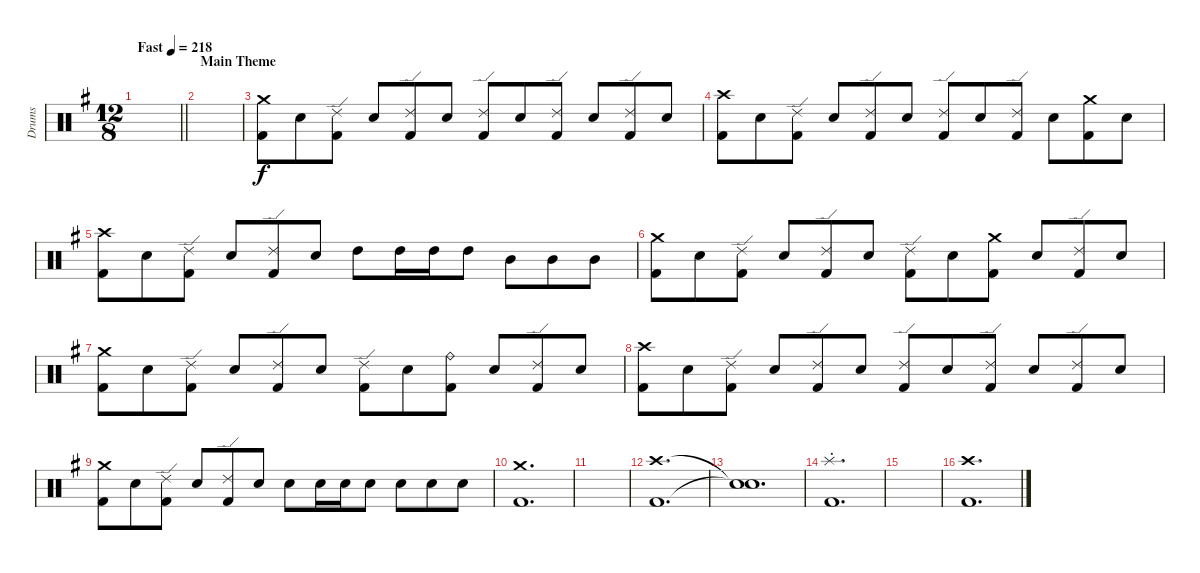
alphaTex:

\track ("Drums" "Drums") {solo instrument percussion}
\staff {score}
\articulation defaults
\ts (12 8)
\tempo (218 "Fast")
\clef neutral
\barLineRight lightlight
\ks eminor
|
\section ("" "Main Theme")
|
("Crash medium (hit)" "Kick (hit) 2").8 "Electric Snare (hit)".8 ("Ride (edge) 2" "Kick (hit) 2").8 "Electric Snare (hit)".8 ("Ride (edge) 2" "Kick (hit) 2").8 "Electric Snare (hit)".8 ("Ride (edge) 2" "Kick (hit) 2").8 "Electric Snare (hit)".8 ("Ride (edge) 2" "Kick (hit) 2").8 "Electric Snare (hit)".8 ("Ride (edge) 2" "Kick (hit) 2").8 "Electric Snare (hit)".8 |
("Crash high (hit)" "Kick (hit) 2").8 "Electric Snare (hit)".8 ("Ride (edge) 2" "Kick (hit) 2").8 "Electric Snare (hit)".8 ("Ride (edge) 2" "Kick (hit) 2").8 "Electric Snare (hit)".8 ("Ride (edge) 2" "Kick (hit) 2").8 "Electric Snare (hit)".8 ("Ride (edge) 2" "Kick (hit) 2").8 "Electric Snare (hit)".8 ("Crash medium (hit)" "Kick (hit) 2").8 "Electric Snare (hit)".8 |
("Crash high (hit)" "Kick (hit) 2").8 "Electric Snare (hit)".8 ("Ride (edge) 2" "Kick (hit) 2").8 "Electric Snare (hit)".8 ("Ride (edge) 2" "Kick (hit) 2").8 "Electric Snare (hit)".8 "High Tom (hit)".8 "High Tom (hit)".16 "High Tom (hit)".16 "High Tom (hit)".8 "Mid Tom (hit)".8 "Mid Tom (hit)".8 "Mid Tom (hit)".8 |
("Crash medium (hit)" "Kick (hit) 2").8 "Electric Snare (hit)".8 ("Ride (edge) 2" "Kick (hit) 2").8 "Electric Snare (hit)".8 ("Ride (edge) 2" "Kick (hit) 2").8 "Electric Snare (hit)".8 ("Ride (edge) 2" "Kick (hit) 2").8 "Electric Snare (hit)".8 ("Crash medium (hit)" "Kick (hit) 2").8 "Electric Snare (hit)".8 ("Ride (edge) 2" "Kick (hit) 2").8 "Electric Snare (hit)".8 |
("Crash medium (hit)" "Kick (hit) 2").8 "Electric Snare (hit)".8 ("Ride (edge) 2" "Kick (hit) 2").8 "Electric Snare (hit)".8 ("Ride (edge) 2" "Kick (hit) 2").8 "Electric Snare (hit)".8 ("Ride (edge) 2" "Kick (hit) 2").8 "Electric Snare (hit)".8 ("Ride (bell)" "Kick (hit) 2").8 "Electric Snare (hit)".8 ("Ride (edge) 2" "Kick (hit) 2").8 "Electric Snare (hit)".8 |
("Crash high (hit)" "Kick (hit) 2").8 "Electric Snare (hit)".8 ("Ride (edge) 2" "Kick (hit) 2").8 "Electric Snare (hit)".8 ("Ride (edge) 2" "Kick (hit) 2").8 "Electric Snare (hit)".8 ("Ride (edge) 2" "Kick (hit) 2").8 "Electric Snare (hit)".8 ("Ride (edge) 2" "Kick (hit) 2").8 "Electric Snare (hit)".8 ("Ride (edge) 2" "Kick (hit) 2").8 "Electric Snare (hit)".8 |
("Crash medium (hit)" "Kick (hit) 2").8 "Electric Snare (hit)".8 ("Ride (edge) 2" "Kick (hit) 2").8 "Electric Snare (hit)".8 ("Ride (edge) 2" "Kick (hit) 2").8 "Electric Snare (hit)".8 "Electric Snare (hit)".8 "Electric Snare (hit)".16 "Electric Snare (hit)".16 "Electric Snare (hit)".8 "Electric Snare (hit)".8 "Electric Snare (hit)".8 "Electric Snare (hit)".8 |
("Crash medium (hit)" "Kick (hit) 2").1{d} |
|
("Crash high (hit)" "Kick (hit) 2").1{d} |
("Snare (hit)"{t} "Snare (hit)"{t}).1{d} |
("Splash (hit)"{st} "Kick (hit) 2").1{d} |
|
("Crash high (hit)" "Kick (hit) 2").1{d}
